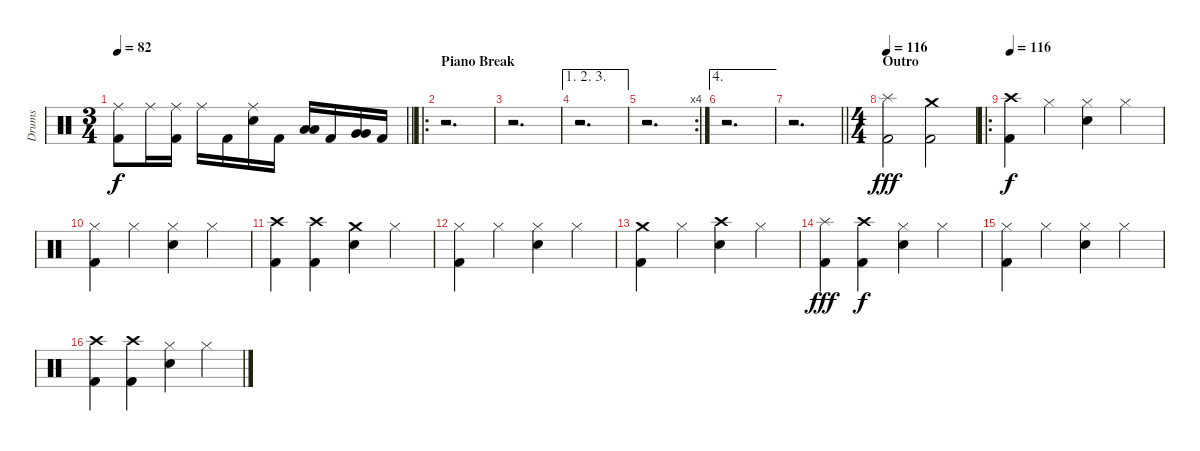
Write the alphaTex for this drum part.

\track ("Drums" "Drums") {instrument percussion}
\staff {score}
\articulation defaults
\ts (3 4)
\tempo 82
\clef neutral
\barLineRight lightlight
\ks c
("Ride (middle)" "Kick (hit) 2").8{dy f} "Ride (middle)".16 ("Ride (middle)" "Kick (hit) 2").16 "Ride (middle)".16 "Kick (hit) 2".16 ("Ride (middle)" "Electric Snare (hit)").16 "Kick (hit) 2".16 ("Low Tom (hit)" "Low Tom (hit)").16{bd 60} "Kick (hit) 2".16 ("Very Low Tom (hit)" "Very Low Tom (hit)").16{bd 60} "Kick (hit) 2".16 |
\ro
\section ("" "Piano Break")
r.2{d} |
r.2{d} |
\ae (1 2 3)
r.2{d} |
\rc 4
r.2{d} |
\ae 4
r.2{d} |
\barLineRight lightlight
r.2{d} |
\ts (4 4)
\section ("" "Outro")
\tempo 116
("Splash (hit)" "Kick (hit) 2").2{dy fff} ("Crash medium (hit)" "Kick (hit) 2").2 |
\ro
\tempo 116
("Crash high (hit)" "Kick (hit) 2").4{dy f} "Hi-Hat (closed)".4 ("Hi-Hat (closed)" "Electric Snare (hit)").4 "Hi-Hat (closed)".4 |
("Hi-Hat (closed)" "Kick (hit) 2").4 "Hi-Hat (closed)".4 ("Hi-Hat (closed)" "Electric Snare (hit)").4 "Hi-Hat (closed)".4 |
("Crash high (hit)" "Kick (hit) 2").4 ("Crash high (hit)" "Kick (hit) 2").4 ("Crash medium (hit)" "Electric Snare (hit)").4 "Hi-Hat (closed)".4 |
("Hi-Hat (closed)" "Kick (hit) 2").4 "Hi-Hat (closed)".4 ("Hi-Hat (closed)" "Electric Snare (hit)").4 "Hi-Hat (closed)".4 |
("Crash medium (hit)" "Kick (hit) 2").4 "Hi-Hat (closed)".4 ("Crash high (hit)" "Electric Snare (hit)").4 "Hi-Hat (closed)".4 |
("Splash (hit)" "Kick (hit) 2").4{dy fff} ("Crash high (hit)" "Kick (hit) 2").4{dy f} ("Hi-Hat (closed)" "Electric Snare (hit)").4 "Hi-Hat (closed)".4 |
("Hi-Hat (closed)" "Kick (hit) 2").4 "Hi-Hat (closed)".4 ("Hi-Hat (closed)" "Electric Snare (hit)").4 "Hi-Hat (closed)".4 |
("Crash high (hit)" "Kick (hit) 2").4 ("Crash high (hit)" "Kick (hit) 2").4 ("Hi-Hat (closed)" "Electric Snare (hit)").4 "Hi-Hat (closed)".4
